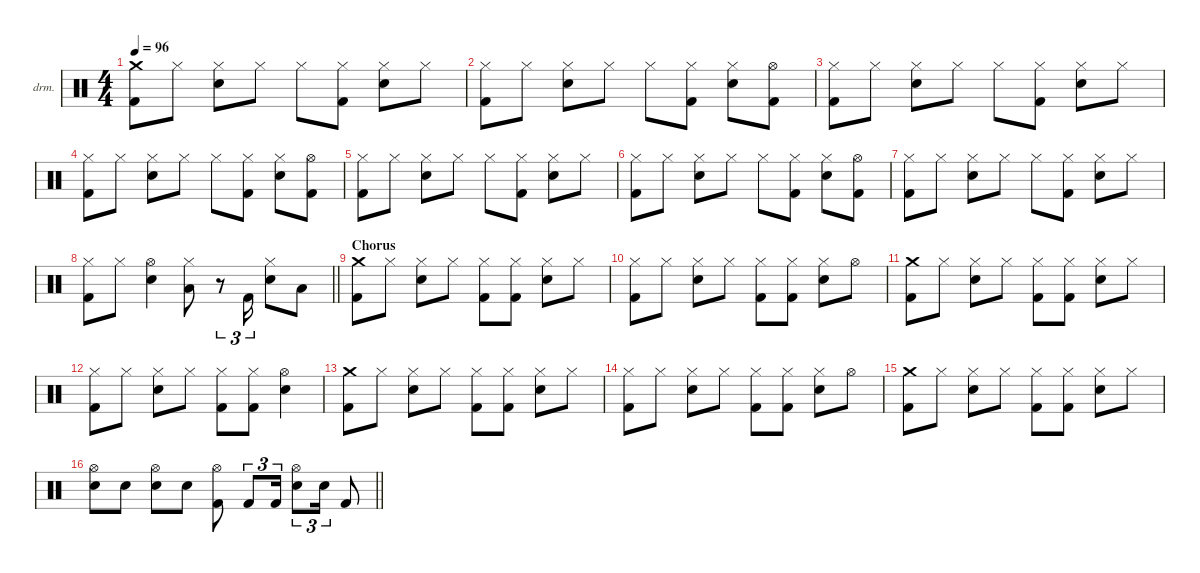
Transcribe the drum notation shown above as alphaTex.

\defaultSystemsLayout 4
\hideDynamics
\bracketExtendMode nobrackets
\firstSystemTrackNameOrientation horizontal
\otherSystemsTrackNameOrientation horizontal
\track ("Percussion" "drm.") {instrument percussion}
\staff {score}
\articulation defaults
\ts (4 4)
\tempo 96
\clef neutral
\ks c
("Crash medium (hit)" "Kick (hit) 2").8{dy f beam Down} "Hi-Hat (closed)".8{beam Down} ("Hi-Hat (closed)" "Snare (hit) 2").8{beam Down} "Hi-Hat (closed)".8{beam Down} "Hi-Hat (closed)".8{beam Down} ("Hi-Hat (closed)" "Kick (hit) 2").8{beam Down} ("Hi-Hat (closed)" "Snare (hit) 2").8{beam Down} "Hi-Hat (closed)".8{beam Down} |
("Hi-Hat (closed)" "Kick (hit) 2").8{beam Down} "Hi-Hat (closed)".8{beam Down} ("Hi-Hat (closed)" "Snare (hit) 2").8{beam Down} "Hi-Hat (closed)".8{beam Down} "Hi-Hat (closed)".8{beam Down} ("Hi-Hat (closed)" "Kick (hit) 2").8{beam Down} ("Hi-Hat (closed)" "Snare (hit) 2").8{beam Down} ("Hi-Hat (open)" "Kick (hit) 2").8{dy mf beam Down} |
("Hi-Hat (closed)" "Kick (hit) 2").8{dy f beam Down} "Hi-Hat (closed)".8{beam Down} ("Hi-Hat (closed)" "Snare (hit) 2").8{beam Down} "Hi-Hat (closed)".8{beam Down} "Hi-Hat (closed)".8{beam Down} ("Hi-Hat (closed)" "Kick (hit) 2").8{beam Down} ("Hi-Hat (closed)" "Snare (hit) 2").8{beam Down} "Hi-Hat (closed)".8{beam Down} |
("Hi-Hat (closed)" "Kick (hit) 2").8{beam Down} "Hi-Hat (closed)".8{beam Down} ("Hi-Hat (closed)" "Snare (hit) 2").8{beam Down} "Hi-Hat (closed)".8{beam Down} "Hi-Hat (closed)".8{beam Down} ("Hi-Hat (closed)" "Kick (hit) 2").8{beam Down} ("Hi-Hat (closed)" "Snare (hit) 2").8{beam Down} ("Hi-Hat (open)" "Kick (hit) 2").8{dy mf beam Down} |
("Hi-Hat (closed)" "Kick (hit) 2").8{dy f beam Down} "Hi-Hat (closed)".8{beam Down} ("Hi-Hat (closed)" "Snare (hit) 2").8{beam Down} "Hi-Hat (closed)".8{beam Down} "Hi-Hat (closed)".8{beam Down} ("Hi-Hat (closed)" "Kick (hit) 2").8{beam Down} ("Hi-Hat (closed)" "Snare (hit) 2").8{beam Down} "Hi-Hat (closed)".8{beam Down} |
("Hi-Hat (closed)" "Kick (hit) 2").8{beam Down} "Hi-Hat (closed)".8{beam Down} ("Hi-Hat (closed)" "Snare (hit) 2").8{beam Down} "Hi-Hat (closed)".8{beam Down} "Hi-Hat (closed)".8{beam Down} ("Hi-Hat (closed)" "Kick (hit) 2").8{beam Down} ("Hi-Hat (closed)" "Snare (hit) 2").8{beam Down} ("Hi-Hat (open)" "Kick (hit) 2").8{dy mf beam Down} |
("Hi-Hat (closed)" "Kick (hit) 2").8{dy f beam Down} "Hi-Hat (closed)".8{beam Down} ("Hi-Hat (closed)" "Snare (hit) 2").8{beam Down} "Hi-Hat (closed)".8{beam Down} "Hi-Hat (closed)".8{beam Down} ("Hi-Hat (closed)" "Kick (hit) 2").8{beam Down} ("Hi-Hat (closed)" "Snare (hit) 2").8{beam Down} "Hi-Hat (closed)".8{beam Down} |
\barLineRight lightlight
("Hi-Hat (closed)" "Kick (hit) 2").8{beam Down} "Hi-Hat (closed)".8{beam Down} ("Hi-Hat (open)" "Snare (hit) 2").4{beam Down} ("Hi-Hat (closed)" "Low Tom (hit)").8{beam Down} r.8{tu (3 2) beam Down} "Kick (hit) 2".16{tu (3 2) beam Up} ("Hi-Hat (closed)" "Snare (hit) 2").8{beam Down} "Low Tom (hit)".8{beam Down} |
\section ("" "Chorus")
("Crash medium (hit)" "Kick (hit) 2").8{beam Down} "Hi-Hat (closed)".8{beam Down} ("Hi-Hat (closed)" "Snare (hit) 2").8{beam Down} "Hi-Hat (closed)".8{beam Down} ("Hi-Hat (closed)" "Kick (hit) 2").8{beam Down} ("Hi-Hat (closed)" "Kick (hit) 2").8{beam Down} ("Hi-Hat (closed)" "Snare (hit) 2").8{beam Down} "Hi-Hat (closed)".8{beam Down} |
("Hi-Hat (closed)" "Kick (hit) 2").8{beam Down} "Hi-Hat (closed)".8{beam Down} ("Hi-Hat (closed)" "Snare (hit) 2").8{beam Down} "Hi-Hat (closed)".8{beam Down} ("Hi-Hat (closed)" "Kick (hit) 2").8{beam Down} ("Hi-Hat (closed)" "Kick (hit) 2").8{beam Down} ("Hi-Hat (closed)" "Snare (hit) 2").8{beam Down} "Hi-Hat (open)".8{beam Down} |
("Crash medium (hit)" "Kick (hit) 2").8{beam Down} "Hi-Hat (closed)".8{beam Down} ("Hi-Hat (closed)" "Snare (hit) 2").8{beam Down} "Hi-Hat (closed)".8{beam Down} ("Hi-Hat (closed)" "Kick (hit) 2").8{beam Down} ("Hi-Hat (closed)" "Kick (hit) 2").8{beam Down} ("Hi-Hat (closed)" "Snare (hit) 2").8{beam Down} "Hi-Hat (closed)".8{beam Down} |
("Hi-Hat (closed)" "Kick (hit) 2").8{beam Down} "Hi-Hat (closed)".8{beam Down} ("Hi-Hat (closed)" "Snare (hit) 2").8{beam Down} "Hi-Hat (closed)".8{beam Down} ("Hi-Hat (closed)" "Kick (hit) 2").8{beam Down} ("Hi-Hat (closed)" "Kick (hit) 2").8{beam Down} ("Hi-Hat (open)" "Snare (hit) 2").4{beam Down} |
("Crash medium (hit)" "Kick (hit) 2").8{beam Down} "Hi-Hat (closed)".8{beam Down} ("Hi-Hat (closed)" "Snare (hit) 2").8{beam Down} "Hi-Hat (closed)".8{beam Down} ("Hi-Hat (closed)" "Kick (hit) 2").8{beam Down} ("Hi-Hat (closed)" "Kick (hit) 2").8{beam Down} ("Hi-Hat (closed)" "Snare (hit) 2").8{beam Down} "Hi-Hat (closed)".8{beam Down} |
("Hi-Hat (closed)" "Kick (hit) 2").8{beam Down} "Hi-Hat (closed)".8{beam Down} ("Hi-Hat (closed)" "Snare (hit) 2").8{beam Down} "Hi-Hat (closed)".8{beam Down} ("Hi-Hat (closed)" "Kick (hit) 2").8{beam Down} ("Hi-Hat (closed)" "Kick (hit) 2").8{beam Down} ("Hi-Hat (closed)" "Snare (hit) 2").8{beam Down} "Hi-Hat (open)".8{beam Down} |
("Crash medium (hit)" "Kick (hit) 2").8{beam Down} "Hi-Hat (closed)".8{beam Down} ("Hi-Hat (closed)" "Snare (hit) 2").8{beam Down} "Hi-Hat (closed)".8{beam Down} ("Hi-Hat (closed)" "Kick (hit) 2").8{beam Down} ("Hi-Hat (closed)" "Kick (hit) 2").8{beam Down} ("Hi-Hat (closed)" "Snare (hit) 2").8{beam Down} "Hi-Hat (closed)".8{beam Down} |
\barLineRight lightlight
("Hi-Hat (open)" "Snare (hit) 2").8{beam Down} "Snare (hit) 2".8{dy mp beam Down} ("Hi-Hat (open)" "Snare (hit) 2").8{beam Down} "Snare (hit) 2".8{dy f beam Down} ("Hi-Hat (open)" "Kick (hit) 2").8{dy mp beam Down} "Kick (hit) 2".8{tu (3 2) dy f beam Up} "Kick (hit) 2".16{tu (3 2) beam Up} ("Hi-Hat (open)" "Snare (hit) 2").8{tu (3 2) dy mp beam Down} "Snare (hit) 2".16{tu (3 2) dy f beam Down} "Kick (hit) 2".8{beam Up}
